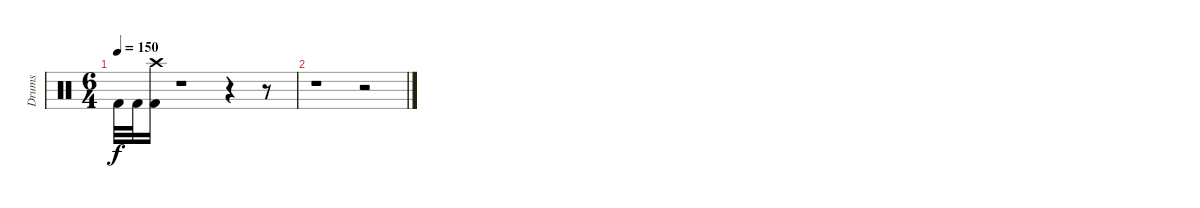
\track ("Drums" "Drums") {instrument percussion}
\staff {score}
\articulation defaults
\ts (6 4)
\tempo 150
\clef neutral
\ks c "Kick (hit) 2".32{dy f} "Kick (hit) 2".32
("Kick (hit) 2" "Crash high (hit)").16 r.1 r.4 r.8 |
r.1 r.2
